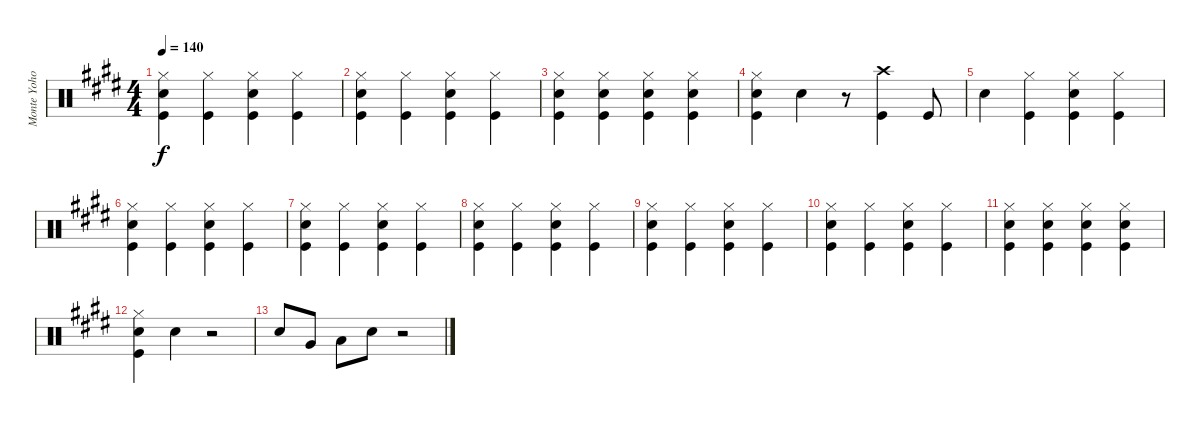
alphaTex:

\track ("Monte Yoho Drums" "Monte Yoho") {instrument percussion}
\staff {score}
\articulation defaults
\ts (4 4)
\tempo 140
\clef neutral
\ks e
("Hi-Hat (closed)" "Snare (hit) 2" "Kick (hit)").4{dy f} ("Hi-Hat (closed)" "Kick (hit)").4 ("Hi-Hat (closed)" "Snare (hit) 2" "Kick (hit)").4 ("Hi-Hat (closed)" "Kick (hit)").4 |
("Hi-Hat (closed)" "Snare (hit) 2" "Kick (hit)").4 ("Hi-Hat (closed)" "Kick (hit)").4 ("Hi-Hat (closed)" "Snare (hit) 2" "Kick (hit)").4 ("Hi-Hat (closed)" "Kick (hit)").4 |
("Hi-Hat (closed)" "Snare (hit) 2" "Kick (hit)").4 ("Hi-Hat (closed)" "Snare (hit) 2" "Kick (hit)").4 ("Hi-Hat (closed)" "Snare (hit) 2" "Kick (hit)").4 ("Hi-Hat (closed)" "Snare (hit) 2" "Kick (hit)").4 |
("Hi-Hat (closed)" "Snare (hit) 2" "Kick (hit)").4 "Snare (hit) 2".4 r.8 ("Crash high (hit)" "Kick (hit)").4 "Kick (hit)".8 |
"Snare (hit) 2".4 ("Hi-Hat (closed)" "Kick (hit)").4 ("Hi-Hat (closed)" "Snare (hit) 2" "Kick (hit)").4 ("Hi-Hat (closed)" "Kick (hit)").4 |
("Hi-Hat (closed)" "Snare (hit) 2" "Kick (hit)").4 ("Hi-Hat (closed)" "Kick (hit)").4 ("Hi-Hat (closed)" "Snare (hit) 2" "Kick (hit)").4 ("Hi-Hat (closed)" "Kick (hit)").4 |
("Hi-Hat (closed)" "Snare (hit) 2" "Kick (hit)").4 ("Hi-Hat (closed)" "Kick (hit)").4 ("Hi-Hat (closed)" "Snare (hit) 2" "Kick (hit)").4 ("Hi-Hat (closed)" "Kick (hit)").4 |
("Hi-Hat (closed)" "Snare (hit) 2" "Kick (hit)").4 ("Hi-Hat (closed)" "Kick (hit)").4 ("Hi-Hat (closed)" "Snare (hit) 2" "Kick (hit)").4 ("Hi-Hat (closed)" "Kick (hit)").4 |
("Hi-Hat (closed)" "Snare (hit) 2" "Kick (hit)").4 ("Hi-Hat (closed)" "Kick (hit)").4 ("Hi-Hat (closed)" "Snare (hit) 2" "Kick (hit)").4 ("Hi-Hat (closed)" "Kick (hit)").4 |
("Hi-Hat (closed)" "Snare (hit) 2" "Kick (hit)").4 ("Hi-Hat (closed)" "Kick (hit)").4 ("Hi-Hat (closed)" "Snare (hit) 2" "Kick (hit)").4 ("Hi-Hat (closed)" "Kick (hit)").4 |
("Hi-Hat (closed)" "Snare (hit) 2" "Kick (hit)").4 ("Hi-Hat (closed)" "Snare (hit) 2" "Kick (hit)").4 ("Hi-Hat (closed)" "Snare (hit) 2" "Kick (hit)").4 ("Hi-Hat (closed)" "Snare (hit) 2" "Kick (hit)").4 |
("Hi-Hat (closed)" "Snare (hit) 2" "Kick (hit)").4 "Snare (hit) 2".4 r.2 |
"Snare (hit) 2".8 "Very Low Tom (hit)".8 "Low Floor Tom (hit)".8 "Snare (hit) 2".8 r.2
